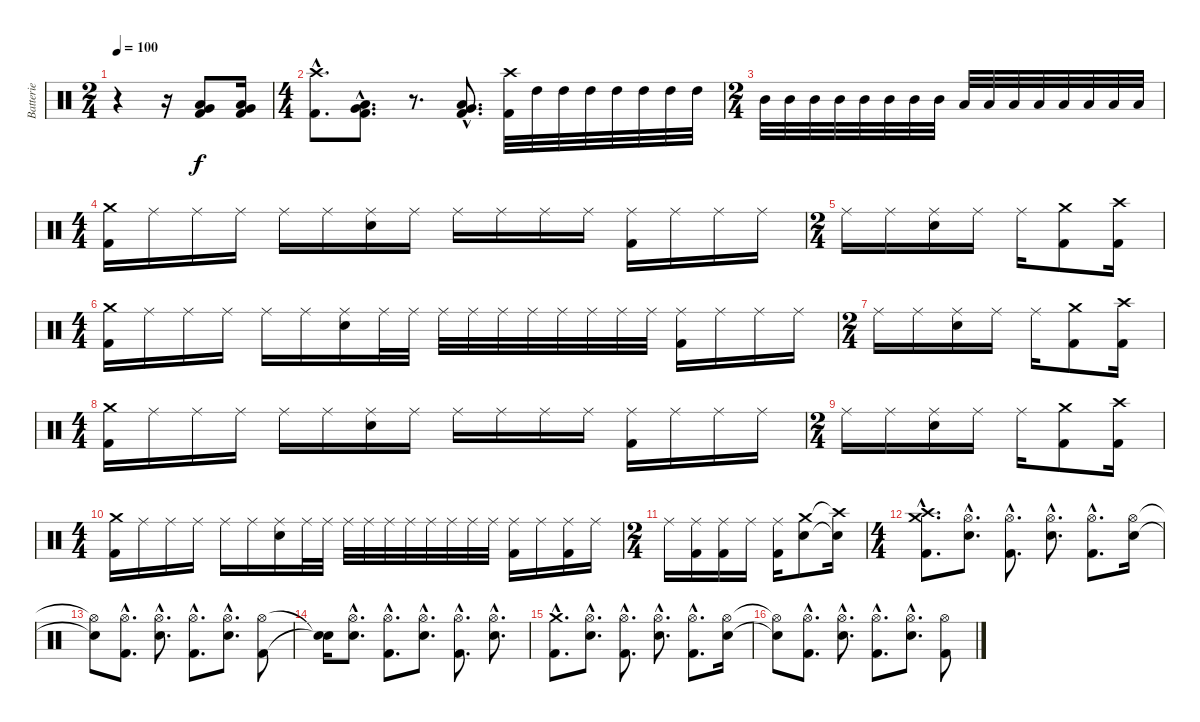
\track ("Batterie" "Batterie") {instrument percussion}
\staff {score}
\articulation defaults
\ts (2 4)
\tempo 100
\clef neutral
\ks c
r.4{dy f} r.16 ("Very Low Tom (hit)" "Low Floor Tom (hit)" "Kick (hit) 2").8 ("Very Low Tom (hit)" "Low Floor Tom (hit)" "Kick (hit) 2").16 |
\ts (4 4)
("Crash high (hit)"{hac} "Kick (hit) 2"{hac}).8{d} ("Very Low Tom (hit)"{hac} "Low Floor Tom (hit)"{hac} "Kick (hit) 2"{hac}).8{d} r.8{d} ("Very Low Tom (hit)"{hac} "Low Floor Tom (hit)"{hac} "Kick (hit) 2"{hac}).8{d} ("Crash high (hit)" "Kick (hit) 2").32 "High Tom (hit)".32 "High Tom (hit)".32 "High Tom (hit)".32 "High Tom (hit)".32 "High Tom (hit)".32 "High Tom (hit)".32 "High Tom (hit)".32 |
\ts (2 4)
"Mid Tom (hit)".32 "Mid Tom (hit)".32 "Mid Tom (hit)".32 "Mid Tom (hit)".32 "Mid Tom (hit)".32 "Mid Tom (hit)".32 "Mid Tom (hit)".32 "Mid Tom (hit)".32 "Low Tom (hit)".32 "Low Tom (hit)".32 "Low Tom (hit)".32 "Low Tom (hit)".32 "Low Tom (hit)".32 "Low Tom (hit)".32 "Low Tom (hit)".32 "Low Tom (hit)".32 |
\ts (4 4)
("Crash medium (hit)" "Kick (hit) 2").16 "Ride (middle)".16 "Ride (middle)".16 "Ride (middle)".16 "Ride (middle)".16 "Ride (middle)".16 ("Ride (middle)" "Electric Snare (hit)").16 "Ride (middle)".16 "Ride (middle)".16 "Ride (middle)".16 "Ride (middle)".16 "Ride (middle)".16 ("Ride (middle)" "Kick (hit) 2").16 "Ride (middle)".16 "Ride (middle)".16 "Ride (middle)".16 |
\ts (2 4)
"Ride (middle)".16 "Ride (middle)".16 ("Ride (middle)" "Electric Snare (hit)").16 "Ride (middle)".16 "Ride (middle)".16 ("Crash medium (hit)" "Kick (hit) 2").8 ("Crash high (hit)" "Kick (hit) 2").16 |
\ts (4 4)
("Crash medium (hit)" "Kick (hit) 2").16 "Ride (middle)".16 "Ride (middle)".16 "Ride (middle)".16 "Ride (middle)".16 "Ride (middle)".16 ("Ride (middle)" "Electric Snare (hit)").16 "Ride (middle)".32 "Ride (middle)".32 "Ride (middle)".32 "Ride (middle)".32 "Ride (middle)".32 "Ride (middle)".32 "Ride (middle)".32 "Ride (middle)".32 "Ride (middle)".32 "Ride (middle)".32 ("Ride (middle)" "Kick (hit) 2").16 "Ride (middle)".16 "Ride (middle)".16 "Ride (middle)".16 |
\ts (2 4)
"Ride (middle)".16 "Ride (middle)".16 ("Ride (middle)" "Electric Snare (hit)").16 "Ride (middle)".16 "Ride (middle)".16 ("Crash medium (hit)" "Kick (hit) 2").8 ("Crash high (hit)" "Kick (hit) 2").16 |
\ts (4 4)
("Crash medium (hit)" "Kick (hit) 2").16 "Ride (middle)".16 "Ride (middle)".16 "Ride (middle)".16 "Ride (middle)".16 "Ride (middle)".16 ("Ride (middle)" "Electric Snare (hit)").16 "Ride (middle)".16 "Ride (middle)".16 "Ride (middle)".16 "Ride (middle)".16 "Ride (middle)".16 ("Ride (middle)" "Kick (hit) 2").16 "Ride (middle)".16 "Ride (middle)".16 "Ride (middle)".16 |
\ts (2 4)
"Ride (middle)".16 "Ride (middle)".16 ("Ride (middle)" "Electric Snare (hit)").16 "Ride (middle)".16 "Ride (middle)".16 ("Crash medium (hit)" "Kick (hit) 2").8 ("Crash high (hit)" "Kick (hit) 2").16 |
\ts (4 4)
("Crash medium (hit)" "Kick (hit) 2").16 "Ride (middle)".16 "Ride (middle)".16 "Ride (middle)".16 "Ride (middle)".16 "Ride (middle)".16 ("Ride (middle)" "Electric Snare (hit)").16 "Ride (middle)".32 "Ride (middle)".32 "Ride (middle)".32 "Ride (middle)".32 "Ride (middle)".32 "Ride (middle)".32 "Ride (middle)".32 "Ride (middle)".32 "Ride (middle)".32 "Ride (middle)".32 ("Ride (middle)" "Kick (hit) 2").16 "Ride (middle)".16 ("Ride (middle)" "Kick (hit) 2").16 "Ride (middle)".16 |
\ts (2 4)
"Ride (middle)".16 ("Ride (middle)" "Kick (hit) 2").16 ("Ride (middle)" "Kick (hit) 2").16 "Ride (middle)".16 ("Ride (middle)" "Kick (hit) 2").16 ("Crash medium (hit)" "Electric Snare (hit)").8 ("Crash high (hit)"{t} "Snare (hit)"{t}).16 |
\ts (4 4)
("Crash high (hit)"{hac} "Crash medium (hit)"{hac} "Kick (hit) 2"{hac}).8{d} ("Hi-Hat (open)"{hac} "Electric Snare (hit)"{hac}).8{d} ("Hi-Hat (open)"{hac} "Kick (hit) 2"{hac}).8{d} ("Hi-Hat (open)"{hac} "Electric Snare (hit)"{hac}).8{d} ("Hi-Hat (open)"{hac} "Kick (hit) 2"{hac}).8{d} ("Hi-Hat (open)" "Electric Snare (hit)").16 |
("Hi-Hat (open)"{t} "Snare (hit)"{t}).8 ("Hi-Hat (open)"{hac} "Kick (hit) 2"{hac}).8{d} ("Hi-Hat (open)"{hac} "Electric Snare (hit)"{hac}).8{d} ("Hi-Hat (open)"{hac} "Kick (hit) 2"{hac}).8{d} ("Hi-Hat (open)"{hac} "Electric Snare (hit)"{hac}).8{d} ("Hi-Hat (open)" "Kick (hit) 2").8 |
("Snare (hit)"{t} "Snare (hit)"{t}).16 ("Hi-Hat (open)"{hac} "Electric Snare (hit)"{hac}).8{d} ("Hi-Hat (open)"{hac} "Kick (hit) 2"{hac}).8{d} ("Hi-Hat (open)"{hac} "Electric Snare (hit)"{hac}).8{d} ("Hi-Hat (open)"{hac} "Kick (hit) 2"{hac}).8{d} ("Hi-Hat (open)"{hac} "Electric Snare (hit)"{hac}).8{d} |
("Crash medium (hit)"{hac} "Kick (hit) 2"{hac}).8{d} ("Hi-Hat (open)"{hac} "Electric Snare (hit)"{hac}).8{d} ("Hi-Hat (open)"{hac} "Kick (hit) 2"{hac}).8{d} ("Hi-Hat (open)"{hac} "Electric Snare (hit)"{hac}).8{d} ("Hi-Hat (open)"{hac} "Kick (hit) 2"{hac}).8{d} ("Hi-Hat (open)" "Electric Snare (hit)").16 |
("Hi-Hat (open)"{t} "Snare (hit)"{t}).8 ("Hi-Hat (open)"{hac} "Kick (hit) 2"{hac}).8{d} ("Hi-Hat (open)"{hac} "Electric Snare (hit)"{hac}).8{d} ("Hi-Hat (open)"{hac} "Kick (hit) 2"{hac}).8{d} ("Hi-Hat (open)"{hac} "Electric Snare (hit)"{hac}).8{d} ("Hi-Hat (open)" "Kick (hit) 2").8
